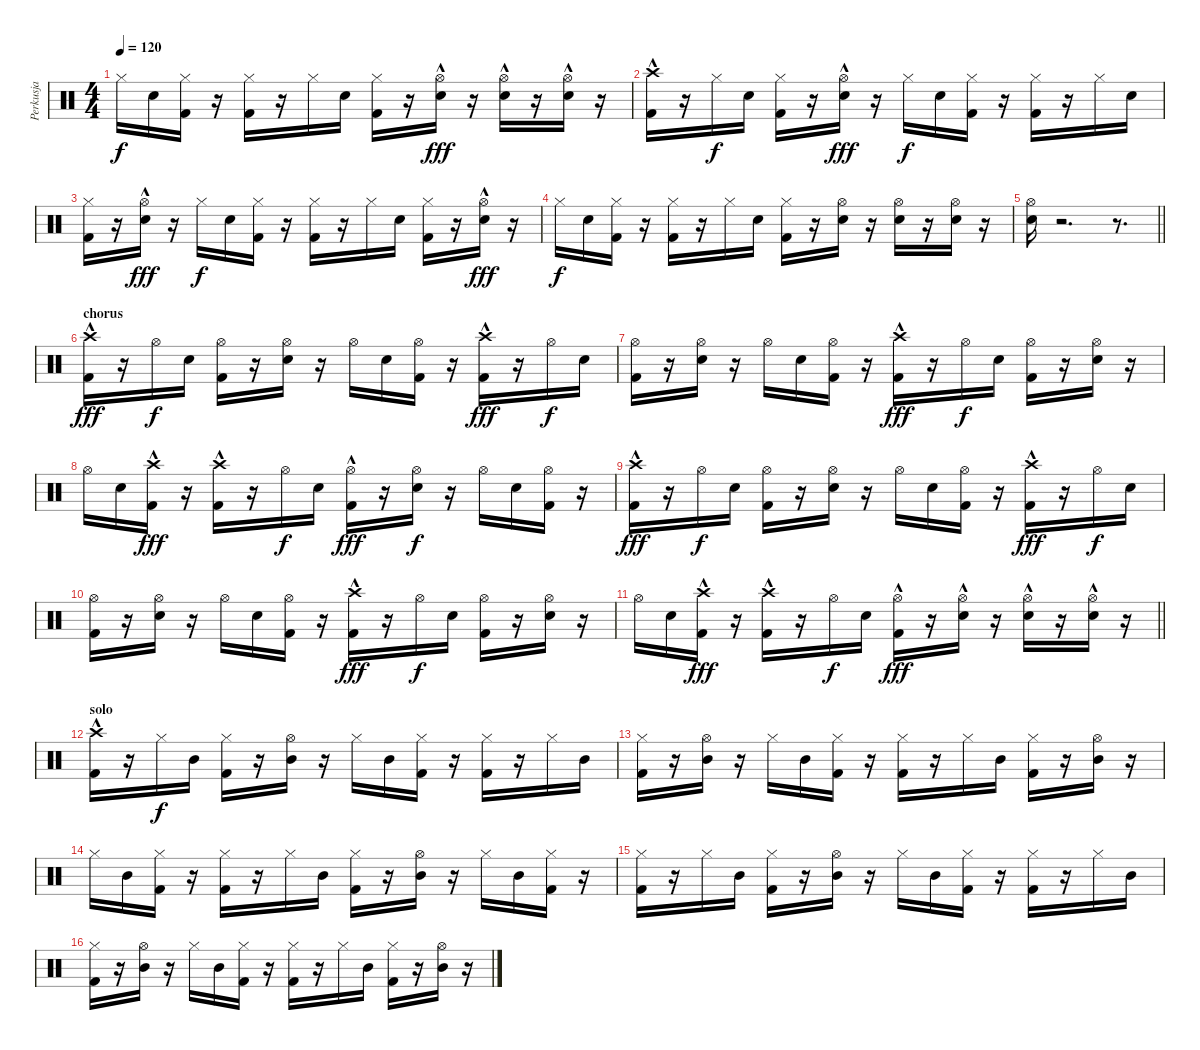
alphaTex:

\track ("Perkusja" "Perkusja") {instrument percussion}
\staff {score}
\articulation defaults
\ts (4 4)
\tempo 120
\clef neutral
\ks c "Hi-Hat (closed)".16{dy f} "Electric Snare (hit)".16
("Hi-Hat (closed)" "Kick (hit) 2").16 r.16 ("Hi-Hat (closed)" "Kick (hit) 2").16 r.16 "Hi-Hat (closed)".16 "Electric Snare (hit)".16 ("Hi-Hat (closed)" "Kick (hit) 2").16 r.16 ("Hi-Hat (open)"{hac} "Electric Snare (hit)"{hac}).16{dy fff} r.16 ("Hi-Hat (open)"{hac} "Electric Snare (hit)"{hac}).16 r.16 ("Hi-Hat (open)"{hac} "Electric Snare (hit)"{hac}).16 r.16 |
("Crash high (hit)"{hac} "Kick (hit) 2").16 r.16 "Hi-Hat (closed)".16{dy f} "Electric Snare (hit)".16 ("Hi-Hat (closed)" "Kick (hit) 2").16 r.16 ("Hi-Hat (open)"{hac} "Electric Snare (hit)"{hac}).16{dy fff} r.16 "Hi-Hat (closed)".16{dy f} "Electric Snare (hit)".16 ("Hi-Hat (closed)" "Kick (hit) 2").16 r.16 ("Hi-Hat (closed)" "Kick (hit) 2").16 r.16 "Hi-Hat (closed)".16 "Electric Snare (hit)".16 |
("Hi-Hat (closed)" "Kick (hit) 2").16 r.16 ("Hi-Hat (open)"{hac} "Electric Snare (hit)"{hac}).16{dy fff} r.16 "Hi-Hat (closed)".16{dy f} "Electric Snare (hit)".16 ("Hi-Hat (closed)" "Kick (hit) 2").16 r.16 ("Hi-Hat (closed)" "Kick (hit) 2").16 r.16 "Hi-Hat (closed)".16 "Electric Snare (hit)".16 ("Hi-Hat (closed)" "Kick (hit) 2").16 r.16 ("Hi-Hat (open)"{hac} "Electric Snare (hit)"{hac}).16{dy fff} r.16 |
"Hi-Hat (closed)".16{dy f} "Electric Snare (hit)".16 ("Hi-Hat (closed)" "Kick (hit) 2").16 r.16 ("Hi-Hat (closed)" "Kick (hit) 2").16 r.16 "Hi-Hat (closed)".16 "Electric Snare (hit)".16 ("Hi-Hat (closed)" "Kick (hit) 2").16 r.16 ("Hi-Hat (open)" "Electric Snare (hit)").16 r.16 ("Hi-Hat (open)" "Electric Snare (hit)").16 r.16 ("Hi-Hat (open)" "Electric Snare (hit)").16 r.16 |
\barLineRight lightlight
("Hi-Hat (open)" "Electric Snare (hit)").16 r.2{d} r.8{d} |
\section ("" "chorus")
("Crash high (hit)"{hac} "Kick (hit) 2").16{dy fff} r.16 "Hi-Hat (open)".16{dy f} "Electric Snare (hit)".16 ("Hi-Hat (open)" "Kick (hit) 2").16 r.16 ("Hi-Hat (open)" "Electric Snare (hit)").16 r.16 "Hi-Hat (open)".16 "Electric Snare (hit)".16 ("Hi-Hat (open)" "Kick (hit) 2").16 r.16 ("Crash high (hit)"{hac} "Kick (hit) 2").16{dy fff} r.16 "Hi-Hat (open)".16{dy f} "Electric Snare (hit)".16 |
("Hi-Hat (open)" "Kick (hit) 2").16 r.16 ("Hi-Hat (open)" "Electric Snare (hit)").16 r.16 "Hi-Hat (open)".16 "Electric Snare (hit)".16 ("Hi-Hat (open)" "Kick (hit) 2").16 r.16 ("Crash high (hit)"{hac} "Kick (hit) 2").16{dy fff} r.16 "Hi-Hat (open)".16{dy f} "Electric Snare (hit)".16 ("Hi-Hat (open)" "Kick (hit) 2").16 r.16 ("Hi-Hat (open)" "Electric Snare (hit)").16 r.16 |
"Hi-Hat (open)".16 "Electric Snare (hit)".16 ("Crash high (hit)"{hac} "Kick (hit) 2").16{dy fff} r.16 ("Crash high (hit)"{hac} "Kick (hit) 2").16 r.16 "Hi-Hat (open)".16{dy f} "Electric Snare (hit)".16 ("Hi-Hat (open)"{hac} "Kick (hit) 2").16{dy fff} r.16 ("Hi-Hat (open)" "Electric Snare (hit)").16{dy f} r.16 "Hi-Hat (open)".16 "Electric Snare (hit)".16 ("Hi-Hat (open)" "Kick (hit) 2").16 r.16 |
("Crash high (hit)"{hac} "Kick (hit) 2").16{dy fff} r.16 "Hi-Hat (open)".16{dy f} "Electric Snare (hit)".16 ("Hi-Hat (open)" "Kick (hit) 2").16 r.16 ("Hi-Hat (open)" "Electric Snare (hit)").16 r.16 "Hi-Hat (open)".16 "Electric Snare (hit)".16 ("Hi-Hat (open)" "Kick (hit) 2").16 r.16 ("Crash high (hit)"{hac} "Kick (hit) 2").16{dy fff} r.16 "Hi-Hat (open)".16{dy f} "Electric Snare (hit)".16 |
("Hi-Hat (open)" "Kick (hit) 2").16 r.16 ("Hi-Hat (open)" "Electric Snare (hit)").16 r.16 "Hi-Hat (open)".16 "Electric Snare (hit)".16 ("Hi-Hat (open)" "Kick (hit) 2").16 r.16 ("Crash high (hit)"{hac} "Kick (hit) 2").16{dy fff} r.16 "Hi-Hat (open)".16{dy f} "Electric Snare (hit)".16 ("Hi-Hat (open)" "Kick (hit) 2").16 r.16 ("Hi-Hat (open)" "Electric Snare (hit)").16 r.16 |
\barLineRight lightlight "Hi-Hat (open)".16 "Electric Snare (hit)".16
("Crash high (hit)"{hac} "Kick (hit) 2").16{dy fff} r.16 ("Crash high (hit)"{hac} "Kick (hit) 2").16 r.16 "Hi-Hat (open)".16{dy f} "Electric Snare (hit)".16 ("Hi-Hat (open)"{hac} "Kick (hit) 2").16{dy fff} r.16 ("Hi-Hat (open)"{hac} "Electric Snare (hit)"{hac}).16 r.16 ("Hi-Hat (open)"{hac} "Electric Snare (hit)"{hac}).16 r.16 ("Hi-Hat (open)"{hac} "Electric Snare (hit)"{hac}).16 r.16 |
\section ("" "solo")
("Crash high (hit)"{hac} "Kick (hit) 2").16 r.16 "Hi-Hat (closed)".16{dy f} "Mid Tom (hit)".16 ("Hi-Hat (closed)" "Kick (hit) 2").16 r.16 ("Hi-Hat (open)" "Mid Tom (hit)").16 r.16 "Hi-Hat (closed)".16 "Mid Tom (hit)".16 ("Hi-Hat (closed)" "Kick (hit) 2").16 r.16 ("Hi-Hat (closed)" "Kick (hit) 2").16 r.16 "Hi-Hat (closed)".16 "Mid Tom (hit)".16 |
("Hi-Hat (closed)" "Kick (hit) 2").16 r.16 ("Hi-Hat (open)" "Mid Tom (hit)").16 r.16 "Hi-Hat (closed)".16 "Mid Tom (hit)".16 ("Hi-Hat (closed)" "Kick (hit) 2").16 r.16 ("Hi-Hat (closed)" "Kick (hit) 2").16 r.16 "Hi-Hat (closed)".16 "Mid Tom (hit)".16 ("Hi-Hat (closed)" "Kick (hit) 2").16 r.16 ("Hi-Hat (open)" "Mid Tom (hit)").16 r.16 |
"Hi-Hat (closed)".16 "Mid Tom (hit)".16 ("Hi-Hat (closed)" "Kick (hit) 2").16 r.16 ("Hi-Hat (closed)" "Kick (hit) 2").16 r.16 "Hi-Hat (closed)".16 "Mid Tom (hit)".16 ("Hi-Hat (closed)" "Kick (hit) 2").16 r.16 ("Hi-Hat (open)" "Mid Tom (hit)").16 r.16 "Hi-Hat (closed)".16 "Mid Tom (hit)".16 ("Hi-Hat (closed)" "Kick (hit) 2").16 r.16 |
("Hi-Hat (closed)" "Kick (hit) 2").16 r.16 "Hi-Hat (closed)".16 "Mid Tom (hit)".16 ("Hi-Hat (closed)" "Kick (hit) 2").16 r.16 ("Hi-Hat (open)" "Mid Tom (hit)").16 r.16 "Hi-Hat (closed)".16 "Mid Tom (hit)".16 ("Hi-Hat (closed)" "Kick (hit) 2").16 r.16 ("Hi-Hat (closed)" "Kick (hit) 2").16 r.16 "Hi-Hat (closed)".16 "Mid Tom (hit)".16 |
("Hi-Hat (closed)" "Kick (hit) 2").16 r.16 ("Hi-Hat (open)" "Mid Tom (hit)").16 r.16 "Hi-Hat (closed)".16 "Mid Tom (hit)".16 ("Hi-Hat (closed)" "Kick (hit) 2").16 r.16 ("Hi-Hat (closed)" "Kick (hit) 2").16 r.16 "Hi-Hat (closed)".16 "Mid Tom (hit)".16 ("Hi-Hat (closed)" "Kick (hit) 2").16 r.16 ("Hi-Hat (open)" "Mid Tom (hit)").16 r.16
